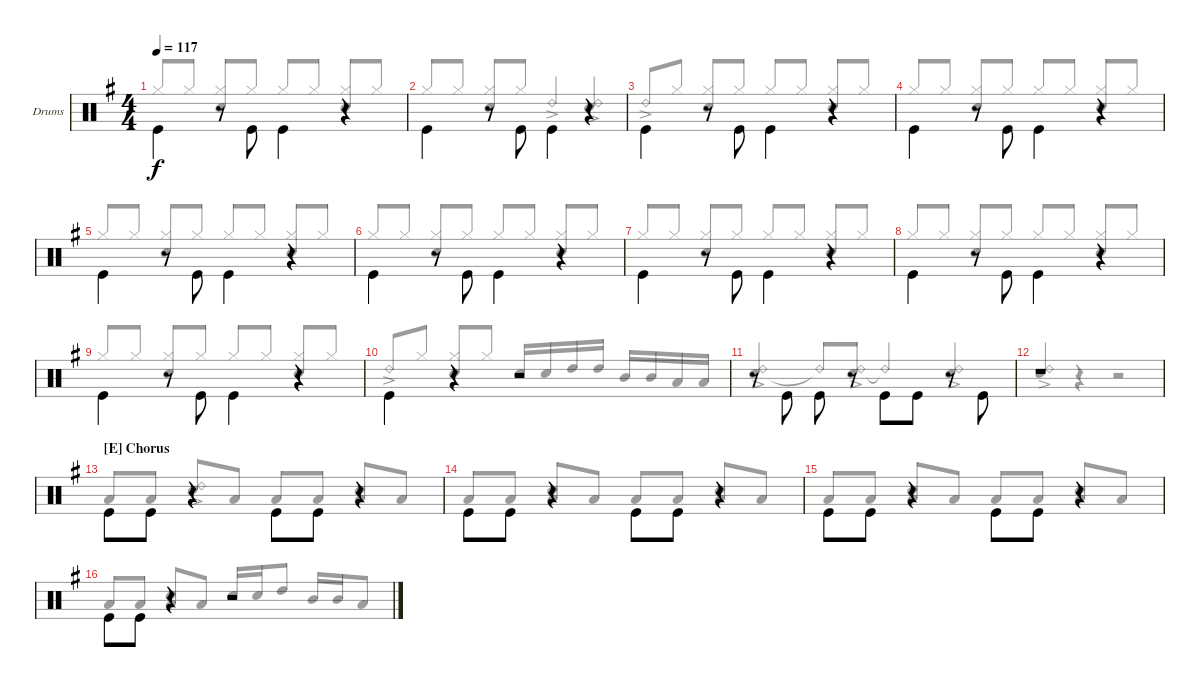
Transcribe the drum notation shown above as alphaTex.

\defaultSystemsLayout 4
\bracketExtendMode groupsimilarinstruments
\firstSystemTrackNameOrientation horizontal
\otherSystemsTrackNameOrientation horizontal
\track ("Drums" "Drums") {instrument percussion}
\staff {score}
\articulation defaults
\voice
\ts (4 4)
\tempo 117
\clef neutral
\scale
1.02648
\ks g "Kick (hit)".4{dy f beam invert}
r.8 "Kick (hit)".8{beam invert} "Kick (hit)".4{beam invert} r.4 |
\scale
0.973518 "Kick (hit)".4{beam invert} r.8 "Kick (hit)".8{beam invert} "Kick (hit)".4{beam invert} r.4 |
\scale
1.02648 "Kick (hit)".4{beam invert} r.8 "Kick (hit)".8{beam invert} "Kick (hit)".4{beam invert} r.4 |
\scale
0.973518 "Kick (hit)".4{beam invert} r.8 "Kick (hit)".8{beam invert} "Kick (hit)".4{beam invert} r.4 |
\scale
1.02648 "Kick (hit)".4{beam invert} r.8 "Kick (hit)".8{beam invert} "Kick (hit)".4{beam invert} r.4 |
\scale
0.973518 "Kick (hit)".4{beam invert} r.8 "Kick (hit)".8{beam invert} "Kick (hit)".4{beam invert} r.4 |
\scale
1.02648 "Kick (hit)".4{beam invert} r.8 "Kick (hit)".8{beam invert} "Kick (hit)".4{beam invert} r.4 |
\scale
0.973518 "Kick (hit)".4{beam invert} r.8 "Kick (hit)".8{beam invert} "Kick (hit)".4{beam invert} r.4 |
\scale
1.02648 "Kick (hit)".4{beam invert} r.8 "Kick (hit)".8{beam invert} "Kick (hit)".4{beam invert} r.4 |
\scale
0.973518 "Kick (hit)".4{beam invert} r.4 r.2 |
\scale
1.02648 r.8{beam invert} "Kick (hit)".8{beam invert} "Kick (hit)".8{beam invert} r.8{beam invert} "Kick (hit)".8{beam invert} "Kick (hit)".8 r.8{beam invert} "Kick (hit)".8{beam invert} |
\scale
0.973518 r.1 |
\section ("E" "Chorus")
\scale
1.02648 "Kick (hit)".8{beam invert} "Kick (hit)".8 r.4 "Kick (hit)".8{beam invert} "Kick (hit)".8 r.4 |
\scale
0.973518 "Kick (hit)".8{beam invert} "Kick (hit)".8 r.4 "Kick (hit)".8{beam invert} "Kick (hit)".8 r.4 |
\scale
1.02648 "Kick (hit)".8{beam invert} "Kick (hit)".8 r.4 "Kick (hit)".8{beam invert} "Kick (hit)".8 r.4 |
\scale
0.973518 "Kick (hit)".8{beam invert} "Kick (hit)".8 r.4 r.2
\voice
\clef neutral
\ottava regular
\simile none
\scale
1.02648
\ks g "Hi-Hat (closed)".8{dy f beam invert} "Hi-Hat (closed)".8
("Hi-Hat (closed)" "Snare (hit) 2").8{beam invert} "Hi-Hat (closed)".8 "Hi-Hat (closed)".8{beam invert} "Hi-Hat (closed)".8 ("Hi-Hat (closed)" "Snare (hit) 2").8{beam invert} "Hi-Hat (closed)".8 |
\scale
0.973518 "Hi-Hat (closed)".8{beam invert} "Hi-Hat (closed)".8 ("Hi-Hat (closed)" "Snare (hit) 2").8{beam invert} "Hi-Hat (closed)".8 "Ride (bell) 2"{ac}.4{beam invert} ("Ride (bell) 2"{ac} "Snare (hit) 2").4{beam invert} |
\scale
1.02648 "Ride (bell) 2"{ac}.8{beam invert} "Hi-Hat (closed)".8 ("Hi-Hat (closed)" "Snare (hit) 2").8{beam invert} "Hi-Hat (closed)".8 "Hi-Hat (closed)".8{beam invert} "Hi-Hat (closed)".8 ("Hi-Hat (closed)" "Snare (hit) 2").8{beam invert} "Hi-Hat (closed)".8 |
\scale
0.973518 "Hi-Hat (closed)".8{beam invert} "Hi-Hat (closed)".8 ("Hi-Hat (closed)" "Snare (hit) 2").8{beam invert} "Hi-Hat (closed)".8 "Hi-Hat (closed)".8{beam invert} "Hi-Hat (closed)".8 ("Hi-Hat (closed)" "Snare (hit) 2").8{beam invert} "Hi-Hat (closed)".8 |
\scale
1.02648 "Hi-Hat (closed)".8{beam invert} "Hi-Hat (closed)".8 ("Hi-Hat (closed)" "Snare (hit) 2").8{beam invert} "Hi-Hat (closed)".8 "Hi-Hat (closed)".8{beam invert} "Hi-Hat (closed)".8 ("Hi-Hat (closed)" "Snare (hit) 2").8{beam invert} "Hi-Hat (closed)".8 |
\scale
0.973518 "Hi-Hat (closed)".8{beam invert} "Hi-Hat (closed)".8 ("Hi-Hat (closed)" "Snare (hit) 2").8{beam invert} "Hi-Hat (closed)".8 "Hi-Hat (closed)".8{beam invert} "Hi-Hat (closed)".8 ("Hi-Hat (closed)" "Snare (hit) 2").8{beam invert} "Hi-Hat (closed)".8 |
\scale
1.02648 "Hi-Hat (closed)".8{beam invert} "Hi-Hat (closed)".8 ("Hi-Hat (closed)" "Snare (hit) 2").8{beam invert} "Hi-Hat (closed)".8 "Hi-Hat (closed)".8{beam invert} "Hi-Hat (closed)".8 ("Hi-Hat (closed)" "Snare (hit) 2").8{beam invert} "Hi-Hat (closed)".8 |
\scale
0.973518 "Hi-Hat (closed)".8{beam invert} "Hi-Hat (closed)".8 ("Hi-Hat (closed)" "Snare (hit) 2").8{beam invert} "Hi-Hat (closed)".8 "Hi-Hat (closed)".8{beam invert} "Hi-Hat (closed)".8 ("Hi-Hat (closed)" "Snare (hit) 2").8{beam invert} "Hi-Hat (closed)".8 |
\scale
1.02648 "Hi-Hat (closed)".8{beam invert} "Hi-Hat (closed)".8 ("Hi-Hat (closed)" "Snare (hit) 2").8{beam invert} "Hi-Hat (closed)".8 "Hi-Hat (closed)".8{beam invert} "Hi-Hat (closed)".8 ("Hi-Hat (closed)" "Snare (hit) 2").8{beam invert} "Hi-Hat (closed)".8 |
\scale
0.973518 "Ride (bell) 2"{ac}.8{beam invert} "Hi-Hat (closed)".8 ("Hi-Hat (closed)" "Snare (hit) 2").8{beam invert} "Hi-Hat (closed)".8 "Snare (hit) 2".16{beam invert} "Snare (hit) 2".16 "High Tom (hit)".16 "High Tom (hit)".16 "Mid Tom (hit)".16{beam invert} "Mid Tom (hit)".16 "Low Tom (hit)".16 "Low Tom (hit)".16 |
\scale
1.02648 ("Snare (hit) 2" "Ride (bell) 2"{ac}).4{beam invert} "Ride (bell) 2"{t}.8{beam invert} ("Ride (bell) 2"{ac} "Snare (hit) 2").8 "Ride (bell) 2"{t}.4{beam invert} ("Ride (bell) 2"{ac} "Snare (hit) 2").4{beam invert} |
\scale
0.973518 ("Ride (bell) 2"{ac} "Snare (hit) 2").4{beam invert} r.4 r.2 |
\scale
1.02648 "Low Tom (hit)".8{beam invert} "Low Tom (hit)".8 ("Ride (bell) 2"{ac} "Snare (hit) 2").8{beam invert} "Low Tom (hit)".8 "Low Tom (hit)".8{beam invert} "Low Tom (hit)".8 ("Low Tom (hit)" "Snare (hit) 2").8{beam invert} "Low Tom (hit)".8 |
\scale
0.973518 "Low Tom (hit)".8{beam invert} "Low Tom (hit)".8 ("Low Tom (hit)" "Snare (hit) 2").8{beam invert} "Low Tom (hit)".8 "Low Tom (hit)".8{beam invert} "Low Tom (hit)".8 ("Low Tom (hit)" "Snare (hit) 2").8{beam invert} "Low Tom (hit)".8 |
\scale
1.02648 "Low Tom (hit)".8{beam invert} "Low Tom (hit)".8 ("Low Tom (hit)" "Snare (hit) 2").8{beam invert} "Low Tom (hit)".8 "Low Tom (hit)".8{beam invert} "Low Tom (hit)".8 ("Low Tom (hit)" "Snare (hit) 2").8{beam invert} "Low Tom (hit)".8 |
\scale
0.973518 "Low Tom (hit)".8{beam invert} "Low Tom (hit)".8 ("Low Tom (hit)" "Snare (hit) 2").8{beam invert} "Low Tom (hit)".8 "Snare (hit) 2".16{beam invert} "Snare (hit) 2".16 "High Tom (hit)".8 "Mid Tom (hit)".16{beam invert} "Mid Tom (hit)".16 "Low Tom (hit)".8
